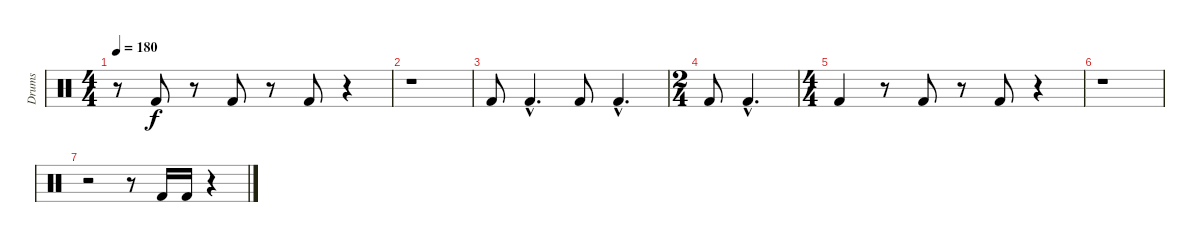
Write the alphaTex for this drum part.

\track ("Drums" "Drums") {instrument percussion}
\staff {score}
\articulation defaults
\ts (4 4)
\tempo 180
\clef neutral
\ks c
r.8{dy f} "Kick (hit) 2".8 r.8 "Kick (hit) 2".8 r.8 "Kick (hit) 2".8 r.4 |
r.1 |
"Kick (hit) 2".8 "Kick (hit) 2"{hac}.4{d} "Kick (hit) 2".8 "Kick (hit) 2"{hac}.4{d} |
\ts (2 4)
"Kick (hit) 2".8 "Kick (hit) 2"{hac}.4{d} |
\ts (4 4)
"Kick (hit) 2".4 r.8 "Kick (hit) 2".8 r.8 "Kick (hit) 2".8 r.4 |
r.1 |
r.2 r.8 "Kick (hit) 2".16 "Kick (hit) 2".16 r.4
